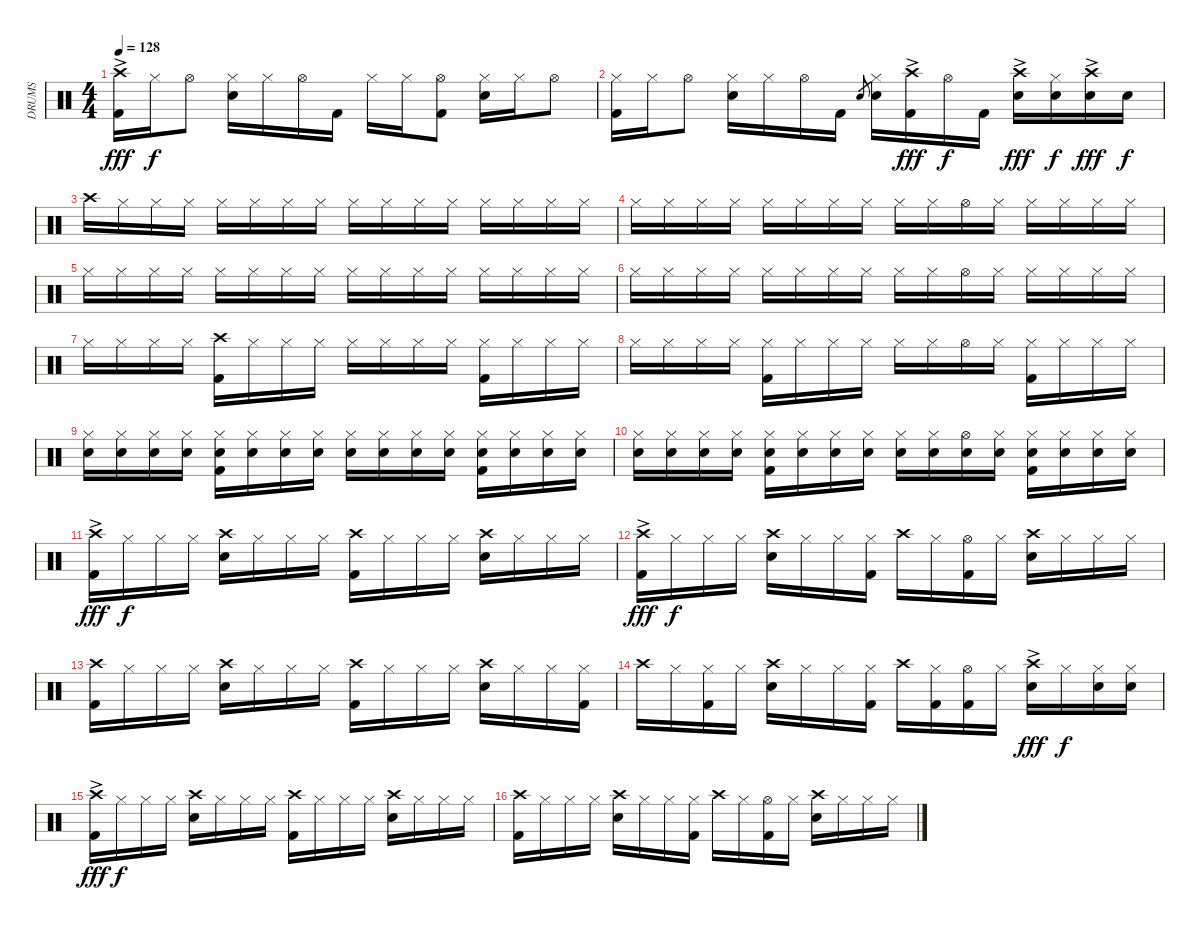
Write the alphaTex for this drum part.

\track ("DRUMS" "DRUMS") {instrument percussion}
\staff {score}
\articulation defaults
\ts (4 4)
\tempo 128
\clef neutral
\ks c
("Crash high (hit)"{ac} "Kick (hit) 2").16{dy fff} "Hi-Hat (closed)".16{dy f} "Hi-Hat (open)".8 ("Hi-Hat (closed)" "Snare (hit) 2").16 "Hi-Hat (closed)".16 "Hi-Hat (open)".16 "Kick (hit) 2".16 "Hi-Hat (closed)".16 "Hi-Hat (closed)".16 ("Hi-Hat (open)" "Kick (hit) 2").8 ("Hi-Hat (closed)" "Snare (hit) 2").16 "Hi-Hat (closed)".16 "Hi-Hat (open)".8 |
("Hi-Hat (closed)" "Kick (hit) 2").16 "Hi-Hat (closed)".16 "Hi-Hat (open)".8 ("Hi-Hat (closed)" "Snare (hit) 2").16 "Hi-Hat (closed)".16 "Hi-Hat (open)".16 "Kick (hit) 2".16 "Snare (hit) 2".8{gr} ("Hi-Hat (closed)" "Snare (hit) 2").16 ("Crash high (hit)"{ac} "Kick (hit) 2").16{dy fff} "Hi-Hat (open)".16{dy f} "Kick (hit) 2".16 ("Crash high (hit)"{ac} "Snare (hit) 2").16{dy fff} ("Hi-Hat (closed)" "Snare (hit) 2").16{dy f} ("Crash high (hit)"{ac} "Snare (hit) 2").16{dy fff} "Snare (hit) 2".16{dy f} |
"Crash high (hit)".16 "Hi-Hat (closed)".16 "Hi-Hat (closed)".16 "Hi-Hat (closed)".16 "Hi-Hat (closed)".16 "Hi-Hat (closed)".16 "Hi-Hat (closed)".16 "Hi-Hat (closed)".16 "Hi-Hat (closed)".16 "Hi-Hat (closed)".16 "Hi-Hat (closed)".16 "Hi-Hat (closed)".16 "Hi-Hat (closed)".16 "Hi-Hat (closed)".16 "Hi-Hat (closed)".16 "Hi-Hat (closed)".16 |
"Hi-Hat (closed)".16 "Hi-Hat (closed)".16 "Hi-Hat (closed)".16 "Hi-Hat (closed)".16 "Hi-Hat (closed)".16 "Hi-Hat (closed)".16 "Hi-Hat (closed)".16 "Hi-Hat (closed)".16 "Hi-Hat (closed)".16 "Hi-Hat (closed)".16 "Hi-Hat (open)".16 "Hi-Hat (closed)".16 "Hi-Hat (closed)".16 "Hi-Hat (closed)".16 "Hi-Hat (closed)".16 "Hi-Hat (closed)".16 |
"Hi-Hat (closed)".16 "Hi-Hat (closed)".16 "Hi-Hat (closed)".16 "Hi-Hat (closed)".16 "Hi-Hat (closed)".16 "Hi-Hat (closed)".16 "Hi-Hat (closed)".16 "Hi-Hat (closed)".16 "Hi-Hat (closed)".16 "Hi-Hat (closed)".16 "Hi-Hat (closed)".16 "Hi-Hat (closed)".16 "Hi-Hat (closed)".16 "Hi-Hat (closed)".16 "Hi-Hat (closed)".16 "Hi-Hat (closed)".16 |
"Hi-Hat (closed)".16 "Hi-Hat (closed)".16 "Hi-Hat (closed)".16 "Hi-Hat (closed)".16 "Hi-Hat (closed)".16 "Hi-Hat (closed)".16 "Hi-Hat (closed)".16 "Hi-Hat (closed)".16 "Hi-Hat (closed)".16 "Hi-Hat (closed)".16 "Hi-Hat (open)".16 "Hi-Hat (closed)".16 "Hi-Hat (closed)".16 "Hi-Hat (closed)".16 "Hi-Hat (closed)".16 "Hi-Hat (closed)".16 |
"Hi-Hat (closed)".16 "Hi-Hat (closed)".16 "Hi-Hat (closed)".16 "Hi-Hat (closed)".16 ("Crash high (hit)" "Kick (hit) 2").16 "Hi-Hat (closed)".16 "Hi-Hat (closed)".16 "Hi-Hat (closed)".16 "Hi-Hat (closed)".16 "Hi-Hat (closed)".16 "Hi-Hat (closed)".16 "Hi-Hat (closed)".16 ("Hi-Hat (closed)" "Kick (hit) 2").16 "Hi-Hat (closed)".16 "Hi-Hat (closed)".16 "Hi-Hat (closed)".16 |
"Hi-Hat (closed)".16 "Hi-Hat (closed)".16 "Hi-Hat (closed)".16 "Hi-Hat (closed)".16 ("Hi-Hat (closed)" "Kick (hit) 2").16 "Hi-Hat (closed)".16 "Hi-Hat (closed)".16 "Hi-Hat (closed)".16 "Hi-Hat (closed)".16 "Hi-Hat (closed)".16 "Hi-Hat (open)".16 "Hi-Hat (closed)".16 ("Hi-Hat (closed)" "Kick (hit) 2").16 "Hi-Hat (closed)".16 "Hi-Hat (closed)".16 "Hi-Hat (closed)".16 |
("Hi-Hat (closed)" "Snare (hit) 2").16 ("Hi-Hat (closed)" "Snare (hit) 2").16 ("Hi-Hat (closed)" "Snare (hit) 2").16 ("Hi-Hat (closed)" "Snare (hit) 2").16 ("Hi-Hat (closed)" "Snare (hit) 2" "Kick (hit) 2").16 ("Hi-Hat (closed)" "Snare (hit) 2").16 ("Hi-Hat (closed)" "Snare (hit) 2").16 ("Hi-Hat (closed)" "Snare (hit) 2").16 ("Hi-Hat (closed)" "Snare (hit) 2").16 ("Hi-Hat (closed)" "Snare (hit) 2").16 ("Hi-Hat (closed)" "Snare (hit) 2").16 ("Hi-Hat (closed)" "Snare (hit) 2").16 ("Hi-Hat (closed)" "Snare (hit) 2" "Kick (hit) 2").16 ("Hi-Hat (closed)" "Snare (hit) 2").16 ("Hi-Hat (closed)" "Snare (hit) 2").16 ("Hi-Hat (closed)" "Snare (hit) 2").16 |
("Hi-Hat (closed)" "Snare (hit) 2").16 ("Hi-Hat (closed)" "Snare (hit) 2").16 ("Hi-Hat (closed)" "Snare (hit) 2").16 ("Hi-Hat (closed)" "Snare (hit) 2").16 ("Hi-Hat (closed)" "Snare (hit) 2" "Kick (hit) 2").16 ("Hi-Hat (closed)" "Snare (hit) 2").16 ("Hi-Hat (closed)" "Snare (hit) 2").16 ("Hi-Hat (closed)" "Snare (hit) 2").16 ("Hi-Hat (closed)" "Snare (hit) 2").16 ("Hi-Hat (closed)" "Snare (hit) 2").16 ("Hi-Hat (open)" "Snare (hit) 2").16 ("Hi-Hat (closed)" "Snare (hit) 2").16 ("Hi-Hat (closed)" "Snare (hit) 2" "Kick (hit) 2").16 ("Hi-Hat (closed)" "Snare (hit) 2").16 ("Hi-Hat (closed)" "Snare (hit) 2").16 ("Hi-Hat (closed)" "Snare (hit) 2").16 |
("Crash high (hit)"{ac} "Kick (hit) 2").16{dy fff} "Hi-Hat (closed)".16{dy f} "Hi-Hat (closed)".16 "Hi-Hat (closed)".16 ("Crash high (hit)" "Snare (hit) 2").16 "Hi-Hat (closed)".16 "Hi-Hat (closed)".16 "Hi-Hat (closed)".16 ("Crash high (hit)" "Kick (hit) 2").16 "Hi-Hat (closed)".16 "Hi-Hat (closed)".16 "Hi-Hat (closed)".16 ("Crash high (hit)" "Snare (hit) 2").16 "Hi-Hat (closed)".16 "Hi-Hat (closed)".16 "Hi-Hat (closed)".16 |
("Crash high (hit)"{ac} "Kick (hit) 2").16{dy fff} "Hi-Hat (closed)".16{dy f} "Hi-Hat (closed)".16 "Hi-Hat (closed)".16 ("Crash high (hit)" "Snare (hit) 2").16 "Hi-Hat (closed)".16 "Hi-Hat (closed)".16 ("Hi-Hat (closed)" "Kick (hit) 2").16 "Crash high (hit)".16 "Hi-Hat (closed)".16 ("Hi-Hat (open)" "Kick (hit) 2").16 "Hi-Hat (closed)".16 ("Crash high (hit)" "Snare (hit) 2").16 "Hi-Hat (closed)".16 "Hi-Hat (closed)".16 "Hi-Hat (closed)".16 |
("Crash high (hit)" "Kick (hit) 2").16 "Hi-Hat (closed)".16 "Hi-Hat (closed)".16 "Hi-Hat (closed)".16 ("Crash high (hit)" "Snare (hit) 2").16 "Hi-Hat (closed)".16 "Hi-Hat (closed)".16 "Hi-Hat (closed)".16 ("Crash high (hit)" "Kick (hit) 2").16 "Hi-Hat (closed)".16 "Hi-Hat (closed)".16 "Hi-Hat (closed)".16 ("Crash high (hit)" "Snare (hit) 2").16 "Hi-Hat (closed)".16 "Hi-Hat (closed)".16 ("Hi-Hat (closed)" "Kick (hit) 2").16 |
"Crash high (hit)".16 "Hi-Hat (closed)".16 ("Hi-Hat (closed)" "Kick (hit) 2").16 "Hi-Hat (closed)".16 ("Crash high (hit)" "Snare (hit) 2").16 "Hi-Hat (closed)".16 "Hi-Hat (closed)".16 ("Hi-Hat (closed)" "Kick (hit) 2").16 "Crash high (hit)".16 ("Hi-Hat (closed)" "Kick (hit) 2").16 ("Hi-Hat (open)" "Kick (hit) 2").16 "Hi-Hat (closed)".16 ("Crash high (hit)"{ac} "Snare (hit) 2").16{dy fff} "Hi-Hat (closed)".16{dy f} ("Hi-Hat (closed)" "Snare (hit) 2").16 ("Hi-Hat (closed)" "Snare (hit) 2").16 |
("Crash high (hit)"{ac} "Kick (hit) 2").16{dy fff} "Hi-Hat (closed)".16{dy f} "Hi-Hat (closed)".16 "Hi-Hat (closed)".16 ("Crash high (hit)" "Snare (hit) 2").16 "Hi-Hat (closed)".16 "Hi-Hat (closed)".16 "Hi-Hat (closed)".16 ("Crash high (hit)" "Kick (hit) 2").16 "Hi-Hat (closed)".16 "Hi-Hat (closed)".16 "Hi-Hat (closed)".16 ("Crash high (hit)" "Snare (hit) 2").16 "Hi-Hat (closed)".16 "Hi-Hat (closed)".16 "Hi-Hat (closed)".16 |
("Crash high (hit)" "Kick (hit) 2").16 "Hi-Hat (closed)".16 "Hi-Hat (closed)".16 "Hi-Hat (closed)".16 ("Crash high (hit)" "Snare (hit) 2").16 "Hi-Hat (closed)".16 "Hi-Hat (closed)".16 ("Hi-Hat (closed)" "Kick (hit) 2").16 "Crash high (hit)".16 "Hi-Hat (closed)".16 ("Hi-Hat (open)" "Kick (hit) 2").16 "Hi-Hat (closed)".16 ("Crash high (hit)" "Snare (hit) 2").16 "Hi-Hat (closed)".16 "Hi-Hat (closed)".16 "Hi-Hat (closed)".16
